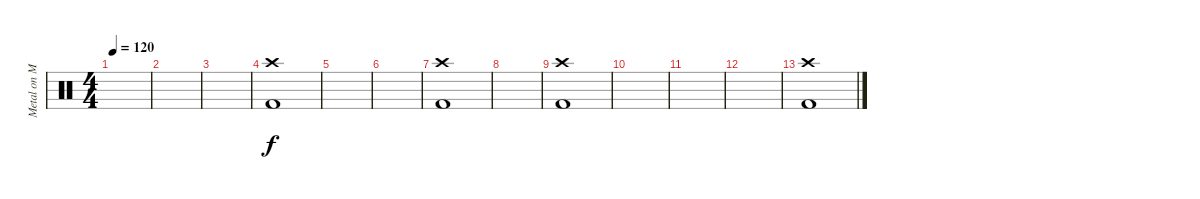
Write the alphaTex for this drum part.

\track ("Metal on Metal" "Metal on M") {instrument percussion}
\staff {score}
\articulation defaults
\ts (4 4)
\tempo 120
\clef neutral
\ks c
|
|
|
("Kick (hit) 2" "Crash high (hit)").1 |
|
|
("Kick (hit) 2" "Crash high (hit)").1 |
|
("Kick (hit) 2" "Crash high (hit)").1 |
|
|
|
("Kick (hit) 2" "Crash high (hit)").1
